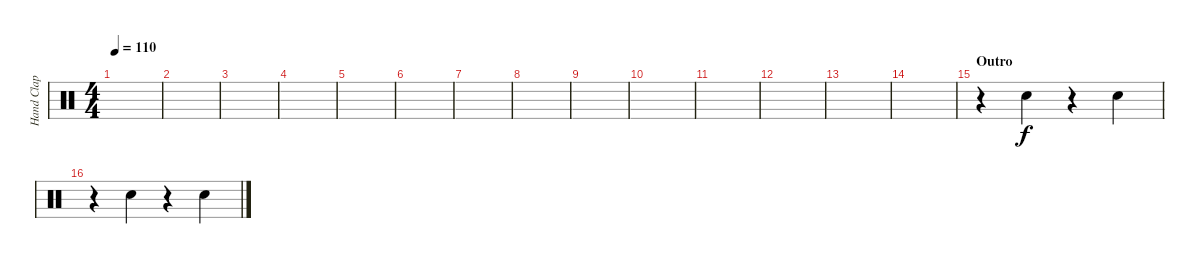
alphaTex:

\track ("Hand Clap" "Hand Clap") {instrument percussion}
\staff {score}
\articulation defaults
\ts (4 4)
\tempo 110
\clef neutral
\ks c
|
|
|
|
|
|
|
|
|
|
|
|
|
|
\section ("" "Outro")
r.4 "Hand Clap (hit)".4 r.4 "Hand Clap (hit)".4 |
r.4 "Hand Clap (hit)".4 r.4 "Hand Clap (hit)".4
